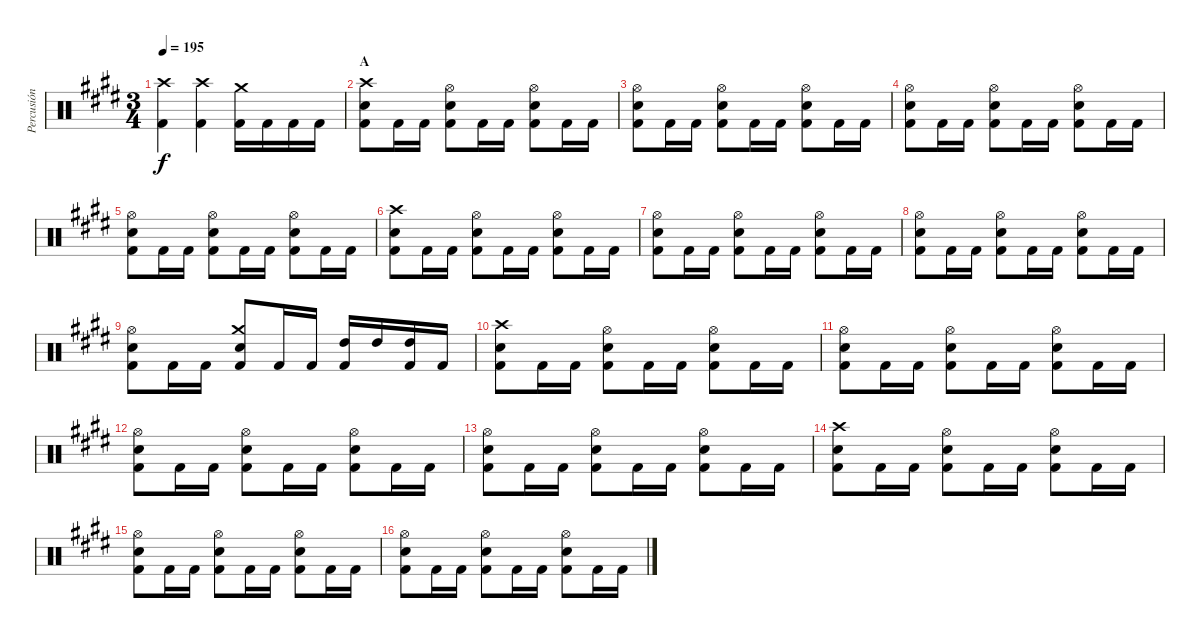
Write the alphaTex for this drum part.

\track ("Percusión" "Percusión") {instrument percussion}
\staff {score}
\articulation defaults
\ts (3 4)
\tempo 195
\clef neutral
\ks e
("Crash high (hit)" "Kick (hit) 2").4{dy f} ("Crash high (hit)" "Kick (hit) 2").4 ("Crash medium (hit)" "Kick (hit) 2").16 "Kick (hit) 2".16 "Kick (hit) 2".16 "Kick (hit) 2".16 |
\section ("" "A")
("Crash high (hit)" "Electric Snare (hit)" "Kick (hit) 2").8 "Kick (hit) 2".16 "Kick (hit) 2".16 ("Hi-Hat (open)" "Electric Snare (hit)" "Kick (hit) 2").8 "Kick (hit) 2".16 "Kick (hit) 2".16 ("Hi-Hat (open)" "Electric Snare (hit)" "Kick (hit) 2").8 "Kick (hit) 2".16 "Kick (hit) 2".16 |
("Hi-Hat (open)" "Electric Snare (hit)" "Kick (hit) 2").8 "Kick (hit) 2".16 "Kick (hit) 2".16 ("Hi-Hat (open)" "Electric Snare (hit)" "Kick (hit) 2").8 "Kick (hit) 2".16 "Kick (hit) 2".16 ("Hi-Hat (open)" "Electric Snare (hit)" "Kick (hit) 2").8 "Kick (hit) 2".16 "Kick (hit) 2".16 |
("Hi-Hat (open)" "Electric Snare (hit)" "Kick (hit) 2").8 "Kick (hit) 2".16 "Kick (hit) 2".16 ("Hi-Hat (open)" "Electric Snare (hit)" "Kick (hit) 2").8 "Kick (hit) 2".16 "Kick (hit) 2".16 ("Hi-Hat (open)" "Electric Snare (hit)" "Kick (hit) 2").8 "Kick (hit) 2".16 "Kick (hit) 2".16 |
("Hi-Hat (open)" "Electric Snare (hit)" "Kick (hit) 2").8 "Kick (hit) 2".16 "Kick (hit) 2".16 ("Hi-Hat (open)" "Electric Snare (hit)" "Kick (hit) 2").8 "Kick (hit) 2".16 "Kick (hit) 2".16 ("Hi-Hat (open)" "Electric Snare (hit)" "Kick (hit) 2").8 "Kick (hit) 2".16 "Kick (hit) 2".16 |
("Crash high (hit)" "Electric Snare (hit)" "Kick (hit) 2").8 "Kick (hit) 2".16 "Kick (hit) 2".16 ("Hi-Hat (open)" "Electric Snare (hit)" "Kick (hit) 2").8 "Kick (hit) 2".16 "Kick (hit) 2".16 ("Hi-Hat (open)" "Electric Snare (hit)" "Kick (hit) 2").8 "Kick (hit) 2".16 "Kick (hit) 2".16 |
("Hi-Hat (open)" "Electric Snare (hit)" "Kick (hit) 2").8 "Kick (hit) 2".16 "Kick (hit) 2".16 ("Hi-Hat (open)" "Electric Snare (hit)" "Kick (hit) 2").8 "Kick (hit) 2".16 "Kick (hit) 2".16 ("Hi-Hat (open)" "Electric Snare (hit)" "Kick (hit) 2").8 "Kick (hit) 2".16 "Kick (hit) 2".16 |
("Hi-Hat (open)" "Electric Snare (hit)" "Kick (hit) 2").8 "Kick (hit) 2".16 "Kick (hit) 2".16 ("Hi-Hat (open)" "Electric Snare (hit)" "Kick (hit) 2").8 "Kick (hit) 2".16 "Kick (hit) 2".16 ("Hi-Hat (open)" "Electric Snare (hit)" "Kick (hit) 2").8 "Kick (hit) 2".16 "Kick (hit) 2".16 |
("Hi-Hat (open)" "Electric Snare (hit)" "Kick (hit) 2").8 "Kick (hit) 2".16 "Kick (hit) 2".16 ("Crash medium (hit)" "Electric Snare (hit)" "Kick (hit) 2").8 "Kick (hit) 2".16 "Kick (hit) 2".16 ("High Tom (hit)" "Kick (hit) 2").16 "High Tom (hit)".16 ("High Tom (hit)" "Kick (hit) 2").16 "Kick (hit) 2".16 |
("Crash high (hit)" "Electric Snare (hit)" "Kick (hit) 2").8 "Kick (hit) 2".16 "Kick (hit) 2".16 ("Hi-Hat (open)" "Electric Snare (hit)" "Kick (hit) 2").8 "Kick (hit) 2".16 "Kick (hit) 2".16 ("Hi-Hat (open)" "Electric Snare (hit)" "Kick (hit) 2").8 "Kick (hit) 2".16 "Kick (hit) 2".16 |
("Hi-Hat (open)" "Electric Snare (hit)" "Kick (hit) 2").8 "Kick (hit) 2".16 "Kick (hit) 2".16 ("Hi-Hat (open)" "Electric Snare (hit)" "Kick (hit) 2").8 "Kick (hit) 2".16 "Kick (hit) 2".16 ("Hi-Hat (open)" "Electric Snare (hit)" "Kick (hit) 2").8 "Kick (hit) 2".16 "Kick (hit) 2".16 |
("Hi-Hat (open)" "Electric Snare (hit)" "Kick (hit) 2").8 "Kick (hit) 2".16 "Kick (hit) 2".16 ("Hi-Hat (open)" "Electric Snare (hit)" "Kick (hit) 2").8 "Kick (hit) 2".16 "Kick (hit) 2".16 ("Hi-Hat (open)" "Electric Snare (hit)" "Kick (hit) 2").8 "Kick (hit) 2".16 "Kick (hit) 2".16 |
("Hi-Hat (open)" "Electric Snare (hit)" "Kick (hit) 2").8 "Kick (hit) 2".16 "Kick (hit) 2".16 ("Hi-Hat (open)" "Electric Snare (hit)" "Kick (hit) 2").8 "Kick (hit) 2".16 "Kick (hit) 2".16 ("Hi-Hat (open)" "Electric Snare (hit)" "Kick (hit) 2").8 "Kick (hit) 2".16 "Kick (hit) 2".16 |
("Crash high (hit)" "Electric Snare (hit)" "Kick (hit) 2").8 "Kick (hit) 2".16 "Kick (hit) 2".16 ("Hi-Hat (open)" "Electric Snare (hit)" "Kick (hit) 2").8 "Kick (hit) 2".16 "Kick (hit) 2".16 ("Hi-Hat (open)" "Electric Snare (hit)" "Kick (hit) 2").8 "Kick (hit) 2".16 "Kick (hit) 2".16 |
("Hi-Hat (open)" "Electric Snare (hit)" "Kick (hit) 2").8 "Kick (hit) 2".16 "Kick (hit) 2".16 ("Hi-Hat (open)" "Electric Snare (hit)" "Kick (hit) 2").8 "Kick (hit) 2".16 "Kick (hit) 2".16 ("Hi-Hat (open)" "Electric Snare (hit)" "Kick (hit) 2").8 "Kick (hit) 2".16 "Kick (hit) 2".16 |
("Hi-Hat (open)" "Electric Snare (hit)" "Kick (hit) 2").8 "Kick (hit) 2".16 "Kick (hit) 2".16 ("Hi-Hat (open)" "Electric Snare (hit)" "Kick (hit) 2").8 "Kick (hit) 2".16 "Kick (hit) 2".16 ("Hi-Hat (open)" "Electric Snare (hit)" "Kick (hit) 2").8 "Kick (hit) 2".16 "Kick (hit) 2".16
